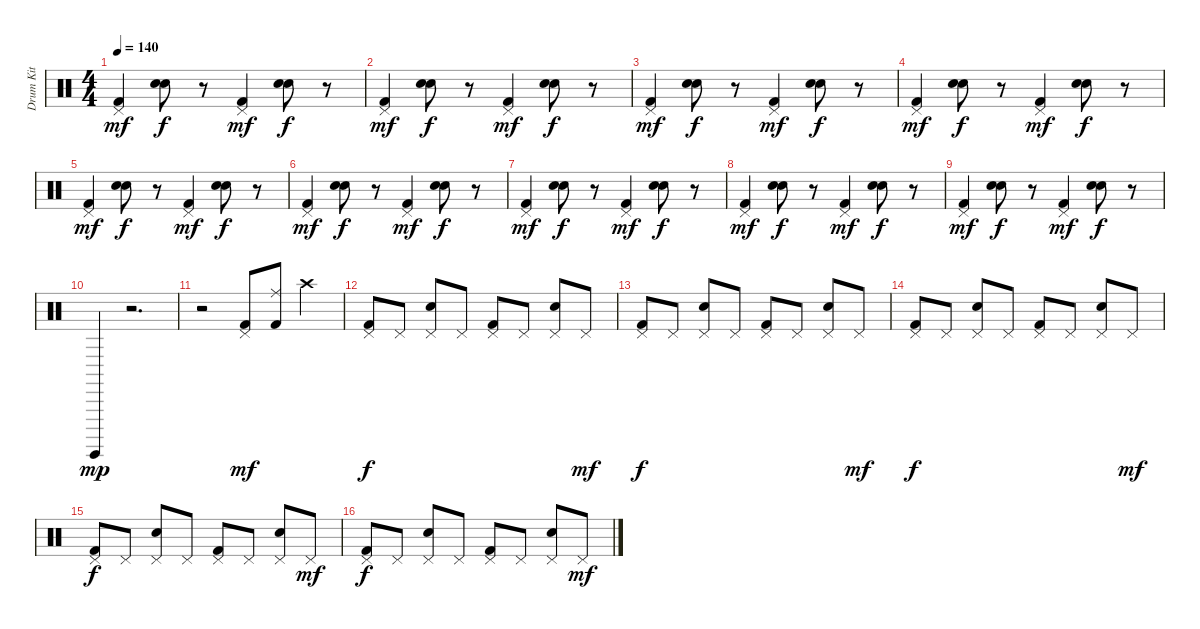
\track ("Drum Kit" "Drum Kit") {instrument percussion}
\staff {score}
\articulation defaults
\ts (4 4)
\tempo 140
\clef neutral
\ks c
("Pedal Hi-Hat (hit)" "Kick (hit) 2").4{dy mf} ("Hand Clap (hit)" "Hand Clap (hit)").8{dy f} r.8 ("Pedal Hi-Hat (hit)" "Kick (hit) 2").4{dy mf} ("Hand Clap (hit)" "Hand Clap (hit)").8{dy f} r.8 |
("Pedal Hi-Hat (hit)" "Kick (hit) 2").4{dy mf} ("Hand Clap (hit)" "Hand Clap (hit)").8{dy f} r.8 ("Pedal Hi-Hat (hit)" "Kick (hit) 2").4{dy mf} ("Hand Clap (hit)" "Hand Clap (hit)").8{dy f} r.8 |
("Pedal Hi-Hat (hit)" "Kick (hit) 2").4{dy mf} ("Hand Clap (hit)" "Hand Clap (hit)").8{dy f} r.8 ("Pedal Hi-Hat (hit)" "Kick (hit) 2").4{dy mf} ("Hand Clap (hit)" "Hand Clap (hit)").8{dy f} r.8 |
("Pedal Hi-Hat (hit)" "Kick (hit) 2").4{dy mf} ("Hand Clap (hit)" "Hand Clap (hit)").8{dy f} r.8 ("Pedal Hi-Hat (hit)" "Kick (hit) 2").4{dy mf} ("Hand Clap (hit)" "Hand Clap (hit)").8{dy f} r.8 |
("Pedal Hi-Hat (hit)" "Kick (hit) 2").4{dy mf} ("Hand Clap (hit)" "Hand Clap (hit)").8{dy f} r.8 ("Pedal Hi-Hat (hit)" "Kick (hit) 2").4{dy mf} ("Hand Clap (hit)" "Hand Clap (hit)").8{dy f} r.8 |
("Pedal Hi-Hat (hit)" "Kick (hit) 2").4{dy mf} ("Hand Clap (hit)" "Hand Clap (hit)").8{dy f} r.8 ("Pedal Hi-Hat (hit)" "Kick (hit) 2").4{dy mf} ("Hand Clap (hit)" "Hand Clap (hit)").8{dy f} r.8 |
("Pedal Hi-Hat (hit)" "Kick (hit) 2").4{dy mf} ("Hand Clap (hit)" "Hand Clap (hit)").8{dy f} r.8 ("Pedal Hi-Hat (hit)" "Kick (hit) 2").4{dy mf} ("Hand Clap (hit)" "Hand Clap (hit)").8{dy f} r.8 |
("Pedal Hi-Hat (hit)" "Kick (hit) 2").4{dy mf} ("Hand Clap (hit)" "Hand Clap (hit)").8{dy f} r.8 ("Pedal Hi-Hat (hit)" "Kick (hit) 2").4{dy mf} ("Hand Clap (hit)" "Hand Clap (hit)").8{dy f} r.8 |
("Pedal Hi-Hat (hit)" "Kick (hit) 2").4{dy mf} ("Hand Clap (hit)" "Hand Clap (hit)").8{dy f} r.8 ("Pedal Hi-Hat (hit)" "Kick (hit) 2").4{dy mf} ("Hand Clap (hit)" "Hand Clap (hit)").8{dy f} r.8 |
"Surdo (hit)".4{dy mp} r.2{d} |
r.2 ("Pedal Hi-Hat (hit)" "Kick (hit) 2").8{dy mf} ("Ride (middle)" "Kick (hit) 2").8 "Crash high (hit)".4 |
("Pedal Hi-Hat (hit)" "Kick (hit) 2").8{dy f} "Pedal Hi-Hat (hit)".8 ("Pedal Hi-Hat (hit)" "Electric Snare (hit)").8 "Pedal Hi-Hat (hit)".8 ("Pedal Hi-Hat (hit)" "Kick (hit) 2").8 "Pedal Hi-Hat (hit)".8 ("Pedal Hi-Hat (hit)" "Electric Snare (hit)").8 "Pedal Hi-Hat (hit)".8{dy mf} |
("Pedal Hi-Hat (hit)" "Kick (hit) 2").8{dy f} "Pedal Hi-Hat (hit)".8 ("Pedal Hi-Hat (hit)" "Electric Snare (hit)").8 "Pedal Hi-Hat (hit)".8 ("Pedal Hi-Hat (hit)" "Kick (hit) 2").8 "Pedal Hi-Hat (hit)".8 ("Pedal Hi-Hat (hit)" "Electric Snare (hit)").8 "Pedal Hi-Hat (hit)".8{dy mf} |
("Pedal Hi-Hat (hit)" "Kick (hit) 2").8{dy f} "Pedal Hi-Hat (hit)".8 ("Pedal Hi-Hat (hit)" "Electric Snare (hit)").8 "Pedal Hi-Hat (hit)".8 ("Pedal Hi-Hat (hit)" "Kick (hit) 2").8 "Pedal Hi-Hat (hit)".8 ("Pedal Hi-Hat (hit)" "Electric Snare (hit)").8 "Pedal Hi-Hat (hit)".8{dy mf} |
("Pedal Hi-Hat (hit)" "Kick (hit) 2").8{dy f} "Pedal Hi-Hat (hit)".8 ("Pedal Hi-Hat (hit)" "Electric Snare (hit)").8 "Pedal Hi-Hat (hit)".8 ("Pedal Hi-Hat (hit)" "Kick (hit) 2").8 "Pedal Hi-Hat (hit)".8 ("Pedal Hi-Hat (hit)" "Electric Snare (hit)").8 "Pedal Hi-Hat (hit)".8{dy mf} |
("Pedal Hi-Hat (hit)" "Kick (hit) 2").8{dy f} "Pedal Hi-Hat (hit)".8 ("Pedal Hi-Hat (hit)" "Electric Snare (hit)").8 "Pedal Hi-Hat (hit)".8 ("Pedal Hi-Hat (hit)" "Kick (hit) 2").8 "Pedal Hi-Hat (hit)".8 ("Pedal Hi-Hat (hit)" "Electric Snare (hit)").8 "Pedal Hi-Hat (hit)".8{dy mf}
